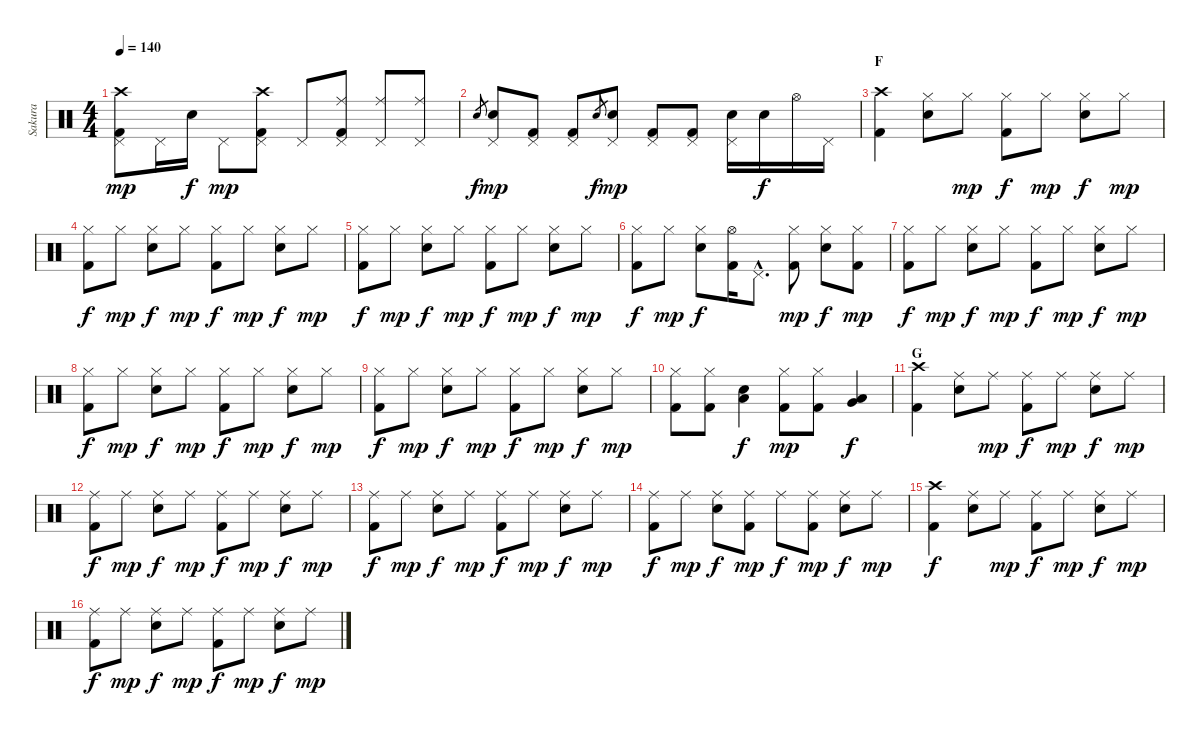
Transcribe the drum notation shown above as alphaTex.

\track ("Sakura" "Sakura") {instrument percussion}
\staff {score}
\articulation defaults
\ts (4 4)
\tempo 140
\clef neutral
\ks c
("Crash high (hit)" "Pedal Hi-Hat (hit)" "Kick (hit) 2").8{dy mp} "Pedal Hi-Hat (hit)".16 "Electric Snare (hit)".16{dy f} "Pedal Hi-Hat (hit)".8{dy mp} ("Crash high (hit)" "Pedal Hi-Hat (hit)" "Kick (hit) 2").8 "Pedal Hi-Hat (hit)".8 ("Ride (middle)" "Pedal Hi-Hat (hit)" "Kick (hit) 2").8 ("Ride (middle)" "Pedal Hi-Hat (hit)").8 ("Ride (middle)" "Pedal Hi-Hat (hit)").8 |
"Electric Snare (hit)".8{gr dy f} ("Pedal Hi-Hat (hit)" "Electric Snare (hit)").8{dy mp} ("Pedal Hi-Hat (hit)" "Kick (hit) 2").8 ("Pedal Hi-Hat (hit)" "Kick (hit) 2").8 "Electric Snare (hit)".8{gr dy f} ("Pedal Hi-Hat (hit)" "Electric Snare (hit)").8{dy mp} ("Pedal Hi-Hat (hit)" "Kick (hit) 2").8 ("Pedal Hi-Hat (hit)" "Kick (hit) 2").8 ("Pedal Hi-Hat (hit)" "Electric Snare (hit)").16 "Electric Snare (hit)".16{dy f} "Hi-Hat (open)".16 "Pedal Hi-Hat (hit)".16 |
\section ("" "F")
("Crash high (hit)" "Kick (hit) 2").4 ("Hi-Hat (closed)" "Electric Snare (hit)").8 "Hi-Hat (closed)".8{dy mp} ("Hi-Hat (closed)" "Kick (hit) 2").8{dy f} "Hi-Hat (closed)".8{dy mp} ("Hi-Hat (closed)" "Electric Snare (hit)").8{dy f} "Hi-Hat (closed)".8{dy mp} |
("Hi-Hat (closed)" "Kick (hit) 2").8{dy f} "Hi-Hat (closed)".8{dy mp} ("Hi-Hat (closed)" "Electric Snare (hit)").8{dy f} "Hi-Hat (closed)".8{dy mp} ("Hi-Hat (closed)" "Kick (hit) 2").8{dy f} "Hi-Hat (closed)".8{dy mp} ("Hi-Hat (closed)" "Electric Snare (hit)").8{dy f} "Hi-Hat (closed)".8{dy mp} |
("Hi-Hat (closed)" "Kick (hit) 2").8{dy f} "Hi-Hat (closed)".8{dy mp} ("Hi-Hat (closed)" "Electric Snare (hit)").8{dy f} "Hi-Hat (closed)".8{dy mp} ("Hi-Hat (closed)" "Kick (hit) 2").8{dy f} "Hi-Hat (closed)".8{dy mp} ("Hi-Hat (closed)" "Electric Snare (hit)").8{dy f} "Hi-Hat (closed)".8{dy mp} |
("Hi-Hat (closed)" "Kick (hit) 2").8{dy f} "Hi-Hat (closed)".8{dy mp} ("Hi-Hat (closed)" "Electric Snare (hit)").8{dy f} ("Hi-Hat (open)" "Kick (hit) 2").16 "Pedal Hi-Hat (hit)"{hac}.8{d} ("Hi-Hat (closed)" "Kick (hit) 2").8{dy mp} ("Hi-Hat (closed)" "Electric Snare (hit)").8{dy f} ("Hi-Hat (closed)" "Kick (hit) 2").8{dy mp} |
("Hi-Hat (closed)" "Kick (hit) 2").8{dy f} "Hi-Hat (closed)".8{dy mp} ("Hi-Hat (closed)" "Electric Snare (hit)").8{dy f} "Hi-Hat (closed)".8{dy mp} ("Hi-Hat (closed)" "Kick (hit) 2").8{dy f} "Hi-Hat (closed)".8{dy mp} ("Hi-Hat (closed)" "Electric Snare (hit)").8{dy f} "Hi-Hat (closed)".8{dy mp} |
("Hi-Hat (closed)" "Kick (hit) 2").8{dy f} "Hi-Hat (closed)".8{dy mp} ("Hi-Hat (closed)" "Electric Snare (hit)").8{dy f} "Hi-Hat (closed)".8{dy mp} ("Hi-Hat (closed)" "Kick (hit) 2").8{dy f} "Hi-Hat (closed)".8{dy mp} ("Hi-Hat (closed)" "Electric Snare (hit)").8{dy f} "Hi-Hat (closed)".8{dy mp} |
("Hi-Hat (closed)" "Kick (hit) 2").8{dy f} "Hi-Hat (closed)".8{dy mp} ("Hi-Hat (closed)" "Electric Snare (hit)").8{dy f} "Hi-Hat (closed)".8{dy mp} ("Hi-Hat (closed)" "Kick (hit) 2").8{dy f} "Hi-Hat (closed)".8{dy mp} ("Hi-Hat (closed)" "Electric Snare (hit)").8{dy f} "Hi-Hat (closed)".8{dy mp} |
("Hi-Hat (closed)" "Kick (hit) 2").8 ("Hi-Hat (closed)" "Kick (hit) 2").8 ("Electric Snare (hit)" "Low Tom (hit)").4{dy f} ("Hi-Hat (closed)" "Kick (hit) 2").8{dy mp} ("Hi-Hat (closed)" "Kick (hit) 2").8 ("Low Tom (hit)" "Very Low Tom (hit)").4{dy f} |
\section ("" "G")
("Crash high (hit)" "Kick (hit) 2").4 ("Ride (middle)" "Electric Snare (hit)").8 "Ride (middle)".8{dy mp} ("Ride (middle)" "Kick (hit) 2").8{dy f} "Ride (middle)".8{dy mp} ("Ride (middle)" "Electric Snare (hit)").8{dy f} "Ride (middle)".8{dy mp} |
("Ride (middle)" "Kick (hit) 2").8{dy f} "Ride (middle)".8{dy mp} ("Ride (middle)" "Electric Snare (hit)").8{dy f} "Ride (middle)".8{dy mp} ("Ride (middle)" "Kick (hit) 2").8{dy f} "Ride (middle)".8{dy mp} ("Ride (middle)" "Electric Snare (hit)").8{dy f} "Ride (middle)".8{dy mp} |
("Ride (middle)" "Kick (hit) 2").8{dy f} "Ride (middle)".8{dy mp} ("Ride (middle)" "Electric Snare (hit)").8{dy f} "Ride (middle)".8{dy mp} ("Ride (middle)" "Kick (hit) 2").8{dy f} "Ride (middle)".8{dy mp} ("Ride (middle)" "Electric Snare (hit)").8{dy f} "Ride (middle)".8{dy mp} |
("Ride (middle)" "Kick (hit) 2").8{dy f} "Ride (middle)".8{dy mp} ("Ride (middle)" "Electric Snare (hit)").8{dy f} ("Ride (middle)" "Kick (hit) 2").8{dy mp} "Ride (middle)".8{dy f} ("Ride (middle)" "Kick (hit) 2").8{dy mp} ("Ride (middle)" "Electric Snare (hit)").8{dy f} "Ride (middle)".8{dy mp} |
("Crash high (hit)" "Kick (hit) 2").4{dy f} ("Ride (middle)" "Electric Snare (hit)").8 "Ride (middle)".8{dy mp} ("Ride (middle)" "Kick (hit) 2").8{dy f} "Ride (middle)".8{dy mp} ("Ride (middle)" "Electric Snare (hit)").8{dy f} "Ride (middle)".8{dy mp} |
("Ride (middle)" "Kick (hit) 2").8{dy f} "Ride (middle)".8{dy mp} ("Ride (middle)" "Electric Snare (hit)").8{dy f} "Ride (middle)".8{dy mp} ("Ride (middle)" "Kick (hit) 2").8{dy f} "Ride (middle)".8{dy mp} ("Ride (middle)" "Electric Snare (hit)").8{dy f} "Ride (middle)".8{dy mp}
